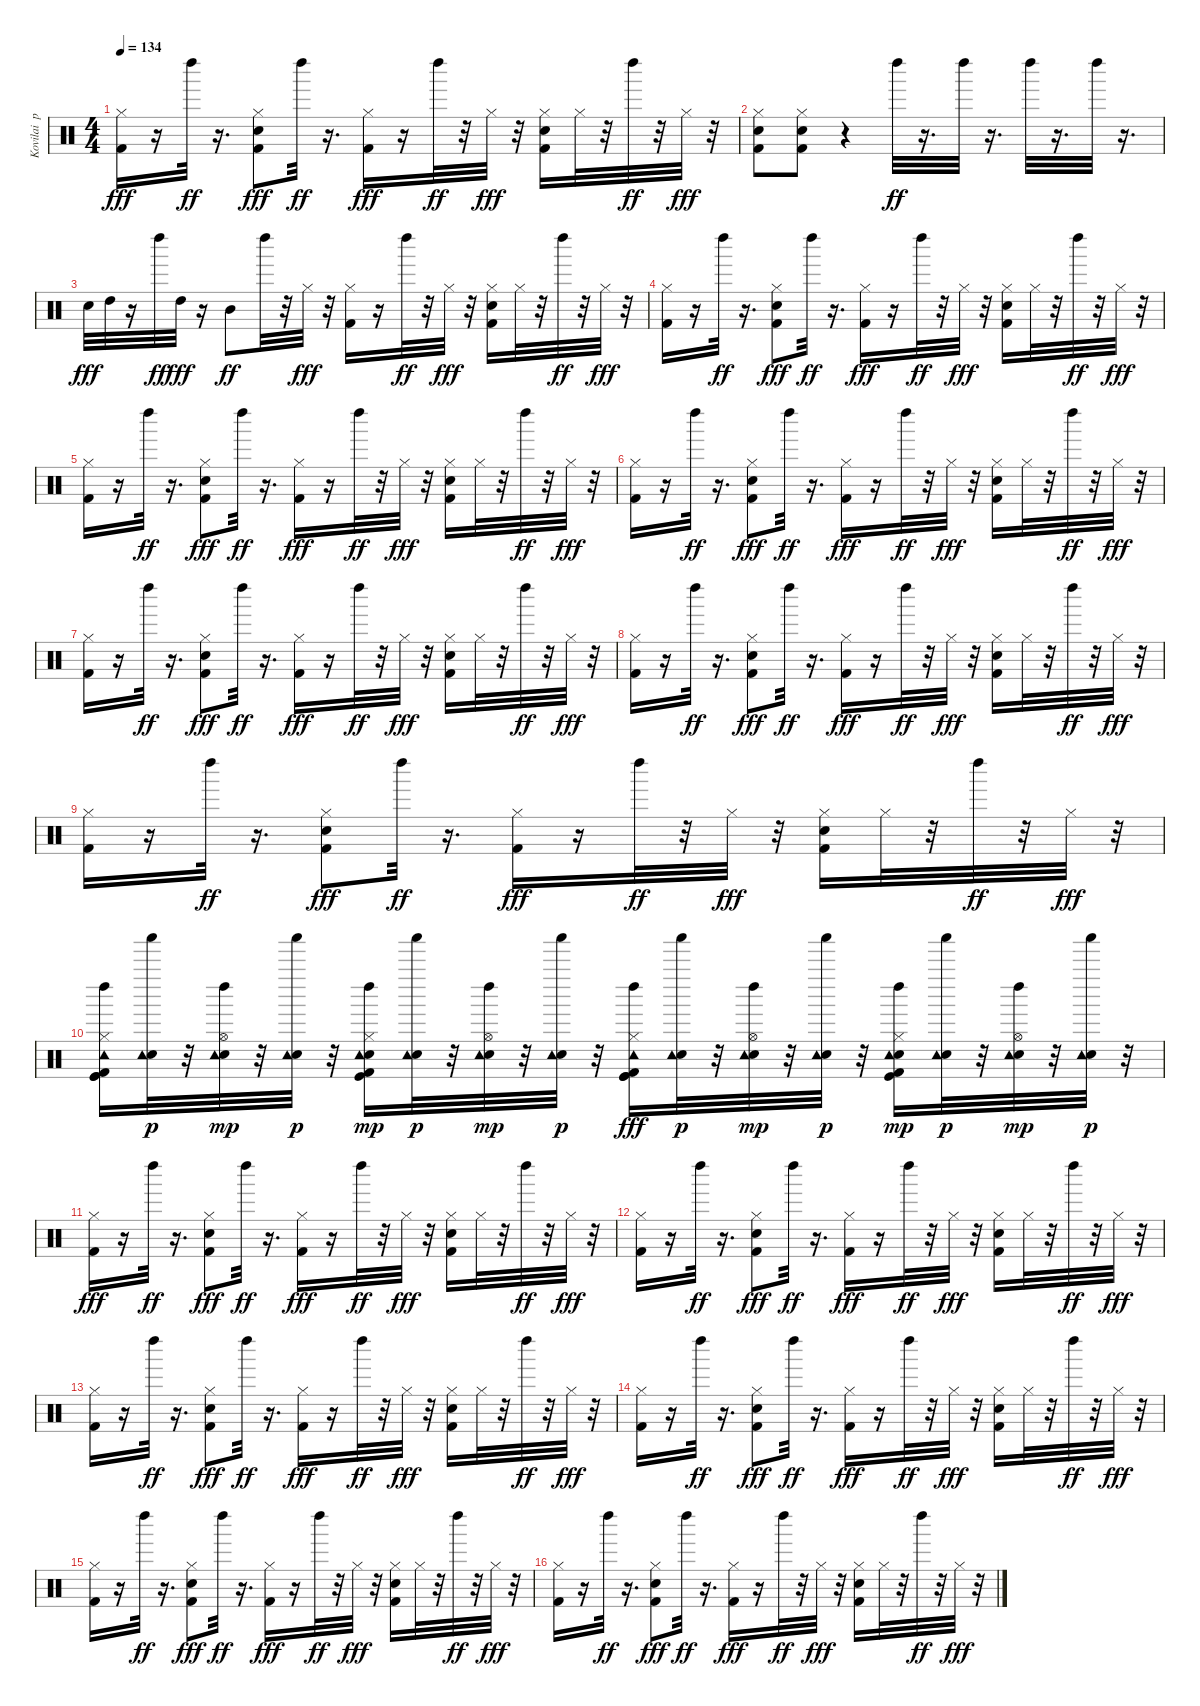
\track ("Kovilai  po tihonechky:" "Kovilai  p") {instrument percussion}
\staff {score}
\articulation defaults
\ts (4 4)
\tempo 134
\clef neutral
\ks c
("Hi-Hat (closed)" "Kick (hit) 2").16{dy fff} r.16 "Left Maraca (hit)".32{dy ff} r.16{d} ("Snare (hit) 2" "Hi-Hat (closed)" "Kick (hit) 2").8{dy fff} "Left Maraca (hit)".32{dy ff} r.16{d} ("Hi-Hat (closed)" "Kick (hit) 2").16{dy fff} r.16 "Left Maraca (hit)".32{dy ff} r.32 "Hi-Hat (closed)".32{dy fff} r.32 ("Hi-Hat (closed)" "Snare (hit) 2" "Kick (hit) 2").16 "Hi-Hat (closed)".32 r.32 "Left Maraca (hit)".32{dy ff} r.32 "Hi-Hat (closed)".32{dy fff} r.32 |
("Snare (hit) 2" "Hi-Hat (closed)" "Kick (hit) 2").8 ("Snare (hit) 2" "Hi-Hat (closed)" "Kick (hit) 2").8 r.4 "Left Maraca (hit)".32{dy ff} r.16{d} "Left Maraca (hit)".32 r.16{d} "Left Maraca (hit)".32 r.16{d} "Left Maraca (hit)".32 r.16{d} |
"Electric Snare (hit)".32{dy fff} "High Tom (hit)".32 r.16 "Left Maraca (hit)".32{dy ff} "High Tom (hit)".32{dy fff} r.16 "Mid Tom (hit)".8{dy ff} "Left Maraca (hit)".32 r.32 "Hi-Hat (closed)".32{dy fff} r.32 ("Hi-Hat (closed)" "Kick (hit) 2").16 r.16 "Left Maraca (hit)".32{dy ff} r.32 "Hi-Hat (closed)".32{dy fff} r.32 ("Hi-Hat (closed)" "Snare (hit) 2" "Kick (hit) 2").16 "Hi-Hat (closed)".32 r.32 "Left Maraca (hit)".32{dy ff} r.32 "Hi-Hat (closed)".32{dy fff} r.32 |
("Hi-Hat (closed)" "Kick (hit) 2").16 r.16 "Left Maraca (hit)".32{dy ff} r.16{d} ("Snare (hit) 2" "Hi-Hat (closed)" "Kick (hit) 2").8{dy fff} "Left Maraca (hit)".32{dy ff} r.16{d} ("Hi-Hat (closed)" "Kick (hit) 2").16{dy fff} r.16 "Left Maraca (hit)".32{dy ff} r.32 "Hi-Hat (closed)".32{dy fff} r.32 ("Hi-Hat (closed)" "Snare (hit) 2" "Kick (hit) 2").16 "Hi-Hat (closed)".32 r.32 "Left Maraca (hit)".32{dy ff} r.32 "Hi-Hat (closed)".32{dy fff} r.32 |
("Hi-Hat (closed)" "Kick (hit) 2").16 r.16 "Left Maraca (hit)".32{dy ff} r.16{d} ("Snare (hit) 2" "Hi-Hat (closed)" "Kick (hit) 2").8{dy fff} "Left Maraca (hit)".32{dy ff} r.16{d} ("Hi-Hat (closed)" "Kick (hit) 2").16{dy fff} r.16 "Left Maraca (hit)".32{dy ff} r.32 "Hi-Hat (closed)".32{dy fff} r.32 ("Hi-Hat (closed)" "Snare (hit) 2" "Kick (hit) 2").16 "Hi-Hat (closed)".32 r.32 "Left Maraca (hit)".32{dy ff} r.32 "Hi-Hat (closed)".32{dy fff} r.32 |
("Hi-Hat (closed)" "Kick (hit) 2").16 r.16 "Left Maraca (hit)".32{dy ff} r.16{d} ("Snare (hit) 2" "Hi-Hat (closed)" "Kick (hit) 2").8{dy fff} "Left Maraca (hit)".32{dy ff} r.16{d} ("Hi-Hat (closed)" "Kick (hit) 2").16{dy fff} r.16 "Left Maraca (hit)".32{dy ff} r.32 "Hi-Hat (closed)".32{dy fff} r.32 ("Hi-Hat (closed)" "Snare (hit) 2" "Kick (hit) 2").16 "Hi-Hat (closed)".32 r.32 "Left Maraca (hit)".32{dy ff} r.32 "Hi-Hat (closed)".32{dy fff} r.32 |
("Hi-Hat (closed)" "Kick (hit) 2").16 r.16 "Left Maraca (hit)".32{dy ff} r.16{d} ("Snare (hit) 2" "Hi-Hat (closed)" "Kick (hit) 2").8{dy fff} "Left Maraca (hit)".32{dy ff} r.16{d} ("Hi-Hat (closed)" "Kick (hit) 2").16{dy fff} r.16 "Left Maraca (hit)".32{dy ff} r.32 "Hi-Hat (closed)".32{dy fff} r.32 ("Hi-Hat (closed)" "Snare (hit) 2" "Kick (hit) 2").16 "Hi-Hat (closed)".32 r.32 "Left Maraca (hit)".32{dy ff} r.32 "Hi-Hat (closed)".32{dy fff} r.32 |
("Hi-Hat (closed)" "Kick (hit) 2").16 r.16 "Left Maraca (hit)".32{dy ff} r.16{d} ("Snare (hit) 2" "Hi-Hat (closed)" "Kick (hit) 2").8{dy fff} "Left Maraca (hit)".32{dy ff} r.16{d} ("Hi-Hat (closed)" "Kick (hit) 2").16{dy fff} r.16 "Left Maraca (hit)".32{dy ff} r.32 "Hi-Hat (closed)".32{dy fff} r.32 ("Hi-Hat (closed)" "Snare (hit) 2" "Kick (hit) 2").16 "Hi-Hat (closed)".32 r.32 "Left Maraca (hit)".32{dy ff} r.32 "Hi-Hat (closed)".32{dy fff} r.32 |
("Hi-Hat (closed)" "Kick (hit) 2").16 r.16 "Left Maraca (hit)".32{dy ff} r.16{d} ("Snare (hit) 2" "Hi-Hat (closed)" "Kick (hit) 2").8{dy fff} "Left Maraca (hit)".32{dy ff} r.16{d} ("Hi-Hat (closed)" "Kick (hit) 2").16{dy fff} r.16 "Left Maraca (hit)".32{dy ff} r.32 "Hi-Hat (closed)".32{dy fff} r.32 ("Hi-Hat (closed)" "Snare (hit) 2" "Kick (hit) 2").16 "Hi-Hat (closed)".32 r.32 "Left Maraca (hit)".32{dy ff} r.32 "Hi-Hat (closed)".32{dy fff} r.32 |
("Kick (hit)" "Kick (hit) 2" "Tambourine (hit)" "Left Maraca (hit)" "Hi-Hat (closed)" "Kick (hit)").16 ("Electric Snare (hit)" "Tambourine (hit)" "Shaker (hit)").32{dy p} r.32 ("Electric Snare (hit)" "Tambourine (hit)" "Left Maraca (hit)" "Hi-Hat (open)").32{dy mp} r.32 ("Electric Snare (hit)" "Tambourine (hit)" "Shaker (hit)").32{dy p} r.32 ("Kick (hit)" "Kick (hit) 2" "Electric Snare (hit)" "Tambourine (hit)" "Left Maraca (hit)" "Hi-Hat (closed)").16{dy mp} ("Electric Snare (hit)" "Tambourine (hit)" "Shaker (hit)").32{dy p} r.32 ("Electric Snare (hit)" "Tambourine (hit)" "Left Maraca (hit)" "Hi-Hat (open)").32{dy mp} r.32 ("Electric Snare (hit)" "Tambourine (hit)" "Shaker (hit)").32{dy p} r.32 ("Kick (hit)" "Kick (hit) 2" "Tambourine (hit)" "Left Maraca (hit)" "Hi-Hat (closed)" "Kick (hit)").16{dy fff} ("Electric Snare (hit)" "Tambourine (hit)" "Shaker (hit)").32{dy p} r.32 ("Electric Snare (hit)" "Tambourine (hit)" "Left Maraca (hit)" "Hi-Hat (open)").32{dy mp} r.32 ("Electric Snare (hit)" "Tambourine (hit)" "Shaker (hit)").32{dy p} r.32 ("Kick (hit)" "Kick (hit) 2" "Electric Snare (hit)" "Tambourine (hit)" "Left Maraca (hit)" "Hi-Hat (closed)").16{dy mp} ("Electric Snare (hit)" "Tambourine (hit)" "Shaker (hit)").32{dy p} r.32 ("Electric Snare (hit)" "Tambourine (hit)" "Left Maraca (hit)" "Hi-Hat (open)").32{dy mp} r.32 ("Electric Snare (hit)" "Tambourine (hit)" "Shaker (hit)").32{dy p} r.32 |
("Hi-Hat (closed)" "Kick (hit) 2").16{dy fff} r.16 "Left Maraca (hit)".32{dy ff} r.16{d} ("Snare (hit) 2" "Hi-Hat (closed)" "Kick (hit) 2").8{dy fff} "Left Maraca (hit)".32{dy ff} r.16{d} ("Hi-Hat (closed)" "Kick (hit) 2").16{dy fff} r.16 "Left Maraca (hit)".32{dy ff} r.32 "Hi-Hat (closed)".32{dy fff} r.32 ("Hi-Hat (closed)" "Snare (hit) 2" "Kick (hit) 2").16 "Hi-Hat (closed)".32 r.32 "Left Maraca (hit)".32{dy ff} r.32 "Hi-Hat (closed)".32{dy fff} r.32 |
("Hi-Hat (closed)" "Kick (hit) 2").16 r.16 "Left Maraca (hit)".32{dy ff} r.16{d} ("Snare (hit) 2" "Hi-Hat (closed)" "Kick (hit) 2").8{dy fff} "Left Maraca (hit)".32{dy ff} r.16{d} ("Hi-Hat (closed)" "Kick (hit) 2").16{dy fff} r.16 "Left Maraca (hit)".32{dy ff} r.32 "Hi-Hat (closed)".32{dy fff} r.32 ("Hi-Hat (closed)" "Snare (hit) 2" "Kick (hit) 2").16 "Hi-Hat (closed)".32 r.32 "Left Maraca (hit)".32{dy ff} r.32 "Hi-Hat (closed)".32{dy fff} r.32 |
("Hi-Hat (closed)" "Kick (hit) 2").16 r.16 "Left Maraca (hit)".32{dy ff} r.16{d} ("Snare (hit) 2" "Hi-Hat (closed)" "Kick (hit) 2").8{dy fff} "Left Maraca (hit)".32{dy ff} r.16{d} ("Hi-Hat (closed)" "Kick (hit) 2").16{dy fff} r.16 "Left Maraca (hit)".32{dy ff} r.32 "Hi-Hat (closed)".32{dy fff} r.32 ("Hi-Hat (closed)" "Snare (hit) 2" "Kick (hit) 2").16 "Hi-Hat (closed)".32 r.32 "Left Maraca (hit)".32{dy ff} r.32 "Hi-Hat (closed)".32{dy fff} r.32 |
("Hi-Hat (closed)" "Kick (hit) 2").16 r.16 "Left Maraca (hit)".32{dy ff} r.16{d} ("Snare (hit) 2" "Hi-Hat (closed)" "Kick (hit) 2").8{dy fff} "Left Maraca (hit)".32{dy ff} r.16{d} ("Hi-Hat (closed)" "Kick (hit) 2").16{dy fff} r.16 "Left Maraca (hit)".32{dy ff} r.32 "Hi-Hat (closed)".32{dy fff} r.32 ("Hi-Hat (closed)" "Snare (hit) 2" "Kick (hit) 2").16 "Hi-Hat (closed)".32 r.32 "Left Maraca (hit)".32{dy ff} r.32 "Hi-Hat (closed)".32{dy fff} r.32 |
("Hi-Hat (closed)" "Kick (hit) 2").16 r.16 "Left Maraca (hit)".32{dy ff} r.16{d} ("Snare (hit) 2" "Hi-Hat (closed)" "Kick (hit) 2").8{dy fff} "Left Maraca (hit)".32{dy ff} r.16{d} ("Hi-Hat (closed)" "Kick (hit) 2").16{dy fff} r.16 "Left Maraca (hit)".32{dy ff} r.32 "Hi-Hat (closed)".32{dy fff} r.32 ("Hi-Hat (closed)" "Snare (hit) 2" "Kick (hit) 2").16 "Hi-Hat (closed)".32 r.32 "Left Maraca (hit)".32{dy ff} r.32 "Hi-Hat (closed)".32{dy fff} r.32 |
("Hi-Hat (closed)" "Kick (hit) 2").16 r.16 "Left Maraca (hit)".32{dy ff} r.16{d} ("Snare (hit) 2" "Hi-Hat (closed)" "Kick (hit) 2").8{dy fff} "Left Maraca (hit)".32{dy ff} r.16{d} ("Hi-Hat (closed)" "Kick (hit) 2").16{dy fff} r.16 "Left Maraca (hit)".32{dy ff} r.32 "Hi-Hat (closed)".32{dy fff} r.32 ("Hi-Hat (closed)" "Snare (hit) 2" "Kick (hit) 2").16 "Hi-Hat (closed)".32 r.32 "Left Maraca (hit)".32{dy ff} r.32 "Hi-Hat (closed)".32{dy fff} r.32
